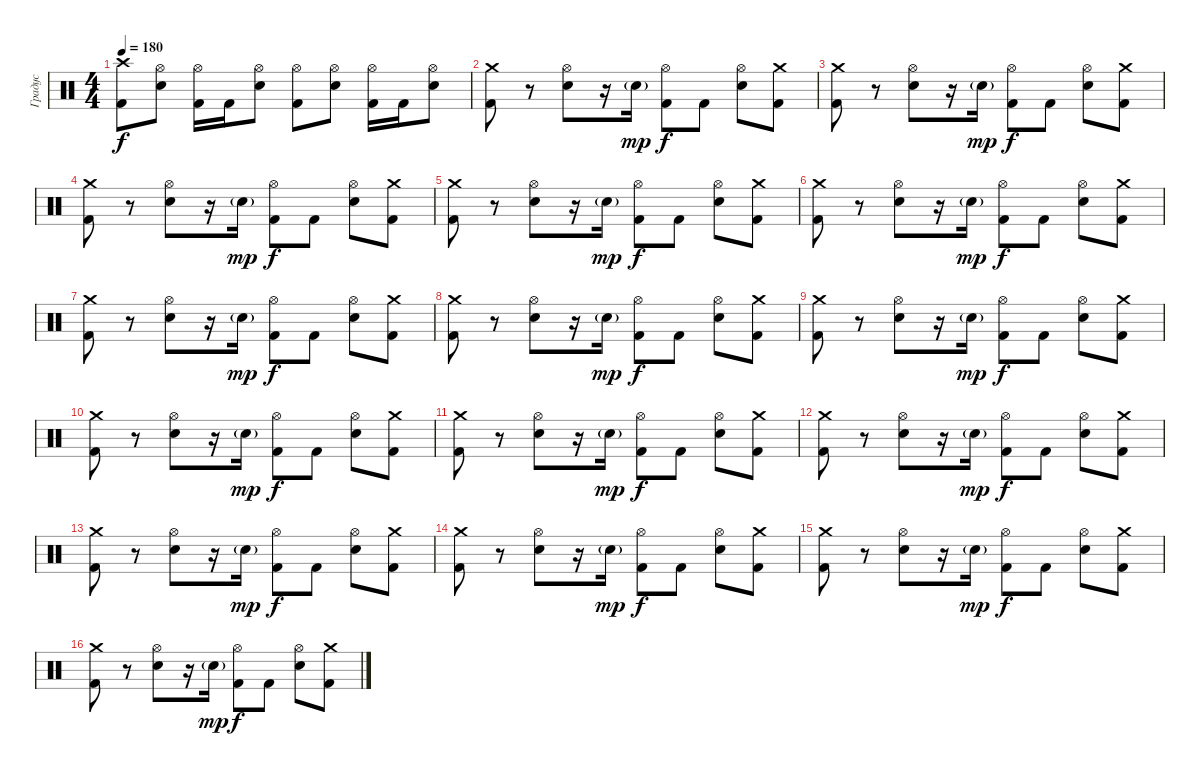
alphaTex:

\track ("Градус" "Градус") {instrument percussion}
\staff {score}
\articulation defaults
\ts (4 4)
\tempo 180
\clef neutral
\ks c
("Kick (hit) 2" "Crash high (hit)").8{dy f} ("Electric Snare (hit)" "Hi-Hat (open)").8 ("Kick (hit) 2" "Hi-Hat (open)").16 "Kick (hit) 2".16 ("Electric Snare (hit)" "Hi-Hat (open)").8 ("Kick (hit) 2" "Hi-Hat (open)").8 ("Electric Snare (hit)" "Hi-Hat (open)").8 ("Kick (hit) 2" "Hi-Hat (open)").16 "Kick (hit) 2".16 ("Electric Snare (hit)" "Hi-Hat (open)").8 |
("Kick (hit) 2" "Crash medium (hit)").8 r.8 ("Electric Snare (hit)" "Hi-Hat (open)").8 r.16 "Electric Snare (hit)"{g}.16{dy mp} ("Kick (hit) 2" "Hi-Hat (open)").8{dy f} "Kick (hit) 2".8 ("Electric Snare (hit)" "Hi-Hat (open)").8 ("Kick (hit) 2" "Crash medium (hit)").8 |
("Kick (hit) 2" "Crash medium (hit)").8 r.8 ("Electric Snare (hit)" "Hi-Hat (open)").8 r.16 "Electric Snare (hit)"{g}.16{dy mp} ("Kick (hit) 2" "Hi-Hat (open)").8{dy f} "Kick (hit) 2".8 ("Electric Snare (hit)" "Hi-Hat (open)").8 ("Kick (hit) 2" "Crash medium (hit)").8 |
("Kick (hit) 2" "Crash medium (hit)").8 r.8 ("Electric Snare (hit)" "Hi-Hat (open)").8 r.16 "Electric Snare (hit)"{g}.16{dy mp} ("Kick (hit) 2" "Hi-Hat (open)").8{dy f} "Kick (hit) 2".8 ("Electric Snare (hit)" "Hi-Hat (open)").8 ("Kick (hit) 2" "Crash medium (hit)").8 |
("Kick (hit) 2" "Crash medium (hit)").8 r.8 ("Electric Snare (hit)" "Hi-Hat (open)").8 r.16 "Electric Snare (hit)"{g}.16{dy mp} ("Kick (hit) 2" "Hi-Hat (open)").8{dy f} "Kick (hit) 2".8 ("Electric Snare (hit)" "Hi-Hat (open)").8 ("Kick (hit) 2" "Crash medium (hit)").8 |
("Kick (hit) 2" "Crash medium (hit)").8 r.8 ("Electric Snare (hit)" "Hi-Hat (open)").8 r.16 "Electric Snare (hit)"{g}.16{dy mp} ("Kick (hit) 2" "Hi-Hat (open)").8{dy f} "Kick (hit) 2".8 ("Electric Snare (hit)" "Hi-Hat (open)").8 ("Kick (hit) 2" "Crash medium (hit)").8 |
("Kick (hit) 2" "Crash medium (hit)").8 r.8 ("Electric Snare (hit)" "Hi-Hat (open)").8 r.16 "Electric Snare (hit)"{g}.16{dy mp} ("Kick (hit) 2" "Hi-Hat (open)").8{dy f} "Kick (hit) 2".8 ("Electric Snare (hit)" "Hi-Hat (open)").8 ("Kick (hit) 2" "Crash medium (hit)").8 |
("Kick (hit) 2" "Crash medium (hit)").8 r.8 ("Electric Snare (hit)" "Hi-Hat (open)").8 r.16 "Electric Snare (hit)"{g}.16{dy mp} ("Kick (hit) 2" "Hi-Hat (open)").8{dy f} "Kick (hit) 2".8 ("Electric Snare (hit)" "Hi-Hat (open)").8 ("Kick (hit) 2" "Crash medium (hit)").8 |
("Kick (hit) 2" "Crash medium (hit)").8 r.8 ("Electric Snare (hit)" "Hi-Hat (open)").8 r.16 "Electric Snare (hit)"{g}.16{dy mp} ("Kick (hit) 2" "Hi-Hat (open)").8{dy f} "Kick (hit) 2".8 ("Electric Snare (hit)" "Hi-Hat (open)").8 ("Kick (hit) 2" "Crash medium (hit)").8 |
("Kick (hit) 2" "Crash medium (hit)").8 r.8 ("Electric Snare (hit)" "Hi-Hat (open)").8 r.16 "Electric Snare (hit)"{g}.16{dy mp} ("Kick (hit) 2" "Hi-Hat (open)").8{dy f} "Kick (hit) 2".8 ("Electric Snare (hit)" "Hi-Hat (open)").8 ("Kick (hit) 2" "Crash medium (hit)").8 |
("Kick (hit) 2" "Crash medium (hit)").8 r.8 ("Electric Snare (hit)" "Hi-Hat (open)").8 r.16 "Electric Snare (hit)"{g}.16{dy mp} ("Kick (hit) 2" "Hi-Hat (open)").8{dy f} "Kick (hit) 2".8 ("Electric Snare (hit)" "Hi-Hat (open)").8 ("Kick (hit) 2" "Crash medium (hit)").8 |
("Kick (hit) 2" "Crash medium (hit)").8 r.8 ("Electric Snare (hit)" "Hi-Hat (open)").8 r.16 "Electric Snare (hit)"{g}.16{dy mp} ("Kick (hit) 2" "Hi-Hat (open)").8{dy f} "Kick (hit) 2".8 ("Electric Snare (hit)" "Hi-Hat (open)").8 ("Kick (hit) 2" "Crash medium (hit)").8 |
("Kick (hit) 2" "Crash medium (hit)").8 r.8 ("Electric Snare (hit)" "Hi-Hat (open)").8 r.16 "Electric Snare (hit)"{g}.16{dy mp} ("Kick (hit) 2" "Hi-Hat (open)").8{dy f} "Kick (hit) 2".8 ("Electric Snare (hit)" "Hi-Hat (open)").8 ("Kick (hit) 2" "Crash medium (hit)").8 |
("Kick (hit) 2" "Crash medium (hit)").8 r.8 ("Electric Snare (hit)" "Hi-Hat (open)").8 r.16 "Electric Snare (hit)"{g}.16{dy mp} ("Kick (hit) 2" "Hi-Hat (open)").8{dy f} "Kick (hit) 2".8 ("Electric Snare (hit)" "Hi-Hat (open)").8 ("Kick (hit) 2" "Crash medium (hit)").8 |
("Kick (hit) 2" "Crash medium (hit)").8 r.8 ("Electric Snare (hit)" "Hi-Hat (open)").8 r.16 "Electric Snare (hit)"{g}.16{dy mp} ("Kick (hit) 2" "Hi-Hat (open)").8{dy f} "Kick (hit) 2".8 ("Electric Snare (hit)" "Hi-Hat (open)").8 ("Kick (hit) 2" "Crash medium (hit)").8 |
("Kick (hit) 2" "Crash medium (hit)").8 r.8 ("Electric Snare (hit)" "Hi-Hat (open)").8 r.16 "Electric Snare (hit)"{g}.16{dy mp} ("Kick (hit) 2" "Hi-Hat (open)").8{dy f} "Kick (hit) 2".8 ("Electric Snare (hit)" "Hi-Hat (open)").8 ("Kick (hit) 2" "Crash medium (hit)").8
